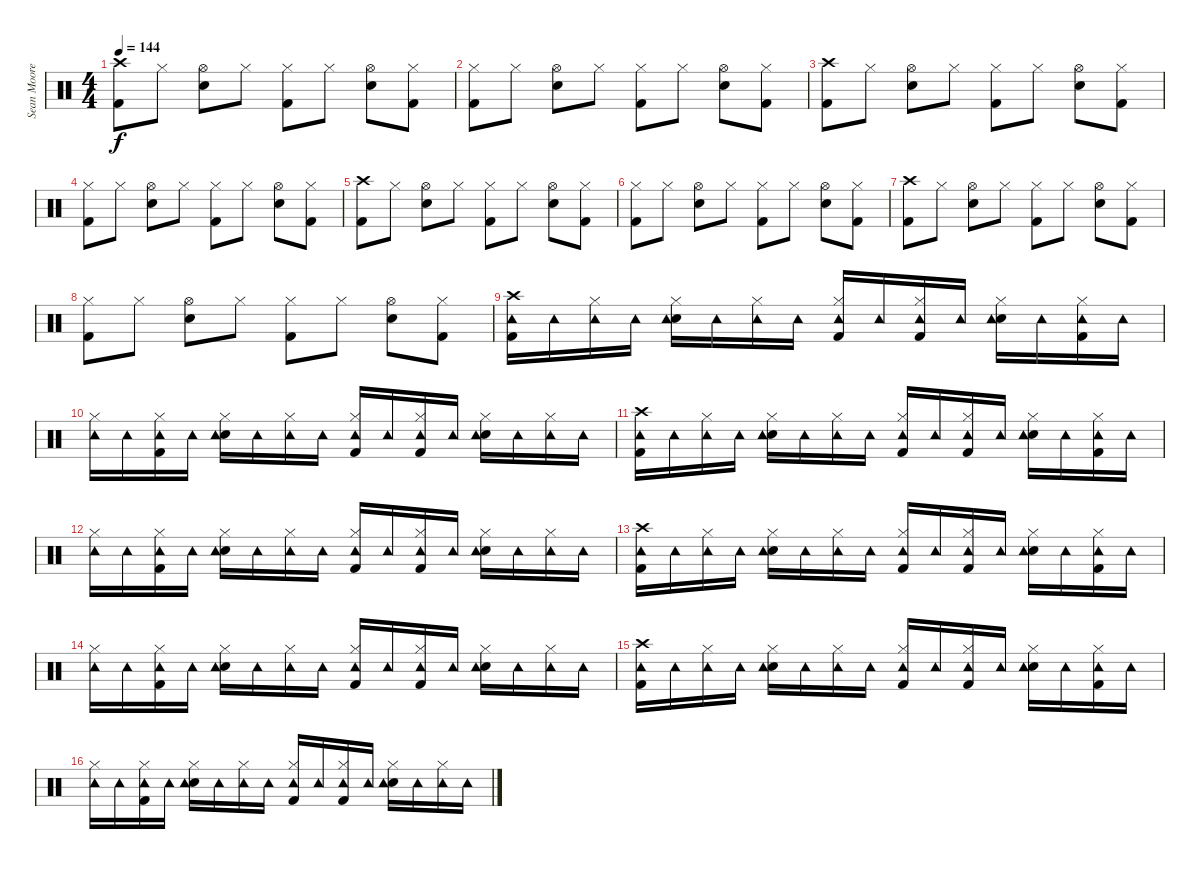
\track ("Sean Moore" "Sean Moore") {instrument percussion}
\staff {score}
\articulation defaults
\ts (4 4)
\tempo 144
\clef neutral
\ks c
("Crash high (hit)" "Kick (hit) 2").8{dy f} "Hi-Hat (closed)".8 ("Hi-Hat (open)" "Snare (hit) 2").8 "Hi-Hat (closed)".8 ("Hi-Hat (closed)" "Kick (hit) 2").8 "Hi-Hat (closed)".8 ("Hi-Hat (open)" "Snare (hit) 2").8 ("Hi-Hat (closed)" "Kick (hit) 2").8 |
("Hi-Hat (closed)" "Kick (hit) 2").8 "Hi-Hat (closed)".8 ("Hi-Hat (open)" "Snare (hit) 2").8 "Hi-Hat (closed)".8 ("Hi-Hat (closed)" "Kick (hit) 2").8 "Hi-Hat (closed)".8 ("Hi-Hat (open)" "Snare (hit) 2").8 ("Hi-Hat (closed)" "Kick (hit) 2").8 |
("Crash high (hit)" "Kick (hit) 2").8 "Hi-Hat (closed)".8 ("Hi-Hat (open)" "Snare (hit) 2").8 "Hi-Hat (closed)".8 ("Hi-Hat (closed)" "Kick (hit) 2").8 "Hi-Hat (closed)".8 ("Hi-Hat (open)" "Snare (hit) 2").8 ("Hi-Hat (closed)" "Kick (hit) 2").8 |
("Hi-Hat (closed)" "Kick (hit) 2").8 "Hi-Hat (closed)".8 ("Hi-Hat (open)" "Snare (hit) 2").8 "Hi-Hat (closed)".8 ("Hi-Hat (closed)" "Kick (hit) 2").8 "Hi-Hat (closed)".8 ("Hi-Hat (open)" "Snare (hit) 2").8 ("Hi-Hat (closed)" "Kick (hit) 2").8 |
("Crash high (hit)" "Kick (hit) 2").8 "Hi-Hat (closed)".8 ("Hi-Hat (open)" "Snare (hit) 2").8 "Hi-Hat (closed)".8 ("Hi-Hat (closed)" "Kick (hit) 2").8 "Hi-Hat (closed)".8 ("Hi-Hat (open)" "Snare (hit) 2").8 ("Hi-Hat (closed)" "Kick (hit) 2").8 |
("Hi-Hat (closed)" "Kick (hit) 2").8 "Hi-Hat (closed)".8 ("Hi-Hat (open)" "Snare (hit) 2").8 "Hi-Hat (closed)".8 ("Hi-Hat (closed)" "Kick (hit) 2").8 "Hi-Hat (closed)".8 ("Hi-Hat (open)" "Snare (hit) 2").8 ("Hi-Hat (closed)" "Kick (hit) 2").8 |
("Crash high (hit)" "Kick (hit) 2").8 "Hi-Hat (closed)".8 ("Hi-Hat (open)" "Snare (hit) 2").8 "Hi-Hat (closed)".8 ("Hi-Hat (closed)" "Kick (hit) 2").8 "Hi-Hat (closed)".8 ("Hi-Hat (open)" "Snare (hit) 2").8 ("Hi-Hat (closed)" "Kick (hit) 2").8 |
("Hi-Hat (closed)" "Kick (hit) 2").8 "Hi-Hat (closed)".8 ("Hi-Hat (open)" "Snare (hit) 2").8 "Hi-Hat (closed)".8 ("Hi-Hat (closed)" "Kick (hit) 2").8 "Hi-Hat (closed)".8 ("Hi-Hat (open)" "Snare (hit) 2").8 ("Hi-Hat (closed)" "Kick (hit) 2").8 |
("Crash high (hit)" "Kick (hit) 2" "Tambourine (hit)").16 "Tambourine (hit)".16 ("Hi-Hat (closed)" "Tambourine (hit)").16 "Tambourine (hit)".16 ("Hi-Hat (closed)" "Snare (hit) 2" "Tambourine (hit)").16 "Tambourine (hit)".16 ("Hi-Hat (closed)" "Tambourine (hit)").16 "Tambourine (hit)".16 ("Hi-Hat (closed)" "Kick (hit) 2" "Tambourine (hit)").16 "Tambourine (hit)".16 ("Hi-Hat (closed)" "Kick (hit) 2" "Tambourine (hit)").16 "Tambourine (hit)".16 ("Hi-Hat (closed)" "Snare (hit) 2" "Tambourine (hit)").16 "Tambourine (hit)".16 ("Hi-Hat (closed)" "Kick (hit) 2" "Tambourine (hit)").16 "Tambourine (hit)".16 |
("Hi-Hat (closed)" "Tambourine (hit)").16 "Tambourine (hit)".16 ("Hi-Hat (closed)" "Kick (hit) 2" "Tambourine (hit)").16 "Tambourine (hit)".16 ("Hi-Hat (closed)" "Snare (hit) 2" "Tambourine (hit)").16 "Tambourine (hit)".16 ("Hi-Hat (closed)" "Tambourine (hit)").16 "Tambourine (hit)".16 ("Hi-Hat (closed)" "Kick (hit) 2" "Tambourine (hit)").16 "Tambourine (hit)".16 ("Hi-Hat (closed)" "Kick (hit) 2" "Tambourine (hit)").16 "Tambourine (hit)".16 ("Hi-Hat (closed)" "Snare (hit) 2" "Tambourine (hit)").16 "Tambourine (hit)".16 ("Hi-Hat (closed)" "Tambourine (hit)").16 "Tambourine (hit)".16 |
("Crash high (hit)" "Kick (hit) 2" "Tambourine (hit)").16 "Tambourine (hit)".16 ("Hi-Hat (closed)" "Tambourine (hit)").16 "Tambourine (hit)".16 ("Hi-Hat (closed)" "Snare (hit) 2" "Tambourine (hit)").16 "Tambourine (hit)".16 ("Hi-Hat (closed)" "Tambourine (hit)").16 "Tambourine (hit)".16 ("Hi-Hat (closed)" "Kick (hit) 2" "Tambourine (hit)").16 "Tambourine (hit)".16 ("Hi-Hat (closed)" "Kick (hit) 2" "Tambourine (hit)").16 "Tambourine (hit)".16 ("Hi-Hat (closed)" "Snare (hit) 2" "Tambourine (hit)").16 "Tambourine (hit)".16 ("Hi-Hat (closed)" "Kick (hit) 2" "Tambourine (hit)").16 "Tambourine (hit)".16 |
("Hi-Hat (closed)" "Tambourine (hit)").16 "Tambourine (hit)".16 ("Hi-Hat (closed)" "Kick (hit) 2" "Tambourine (hit)").16 "Tambourine (hit)".16 ("Hi-Hat (closed)" "Snare (hit) 2" "Tambourine (hit)").16 "Tambourine (hit)".16 ("Hi-Hat (closed)" "Tambourine (hit)").16 "Tambourine (hit)".16 ("Hi-Hat (closed)" "Kick (hit) 2" "Tambourine (hit)").16 "Tambourine (hit)".16 ("Hi-Hat (closed)" "Kick (hit) 2" "Tambourine (hit)").16 "Tambourine (hit)".16 ("Hi-Hat (closed)" "Snare (hit) 2" "Tambourine (hit)").16 "Tambourine (hit)".16 ("Hi-Hat (closed)" "Tambourine (hit)").16 "Tambourine (hit)".16 |
("Crash high (hit)" "Kick (hit) 2" "Tambourine (hit)").16 "Tambourine (hit)".16 ("Hi-Hat (closed)" "Tambourine (hit)").16 "Tambourine (hit)".16 ("Hi-Hat (closed)" "Snare (hit) 2" "Tambourine (hit)").16 "Tambourine (hit)".16 ("Hi-Hat (closed)" "Tambourine (hit)").16 "Tambourine (hit)".16 ("Hi-Hat (closed)" "Kick (hit) 2" "Tambourine (hit)").16 "Tambourine (hit)".16 ("Hi-Hat (closed)" "Kick (hit) 2" "Tambourine (hit)").16 "Tambourine (hit)".16 ("Hi-Hat (closed)" "Snare (hit) 2" "Tambourine (hit)").16 "Tambourine (hit)".16 ("Hi-Hat (closed)" "Kick (hit) 2" "Tambourine (hit)").16 "Tambourine (hit)".16 |
("Hi-Hat (closed)" "Tambourine (hit)").16 "Tambourine (hit)".16 ("Hi-Hat (closed)" "Kick (hit) 2" "Tambourine (hit)").16 "Tambourine (hit)".16 ("Hi-Hat (closed)" "Snare (hit) 2" "Tambourine (hit)").16 "Tambourine (hit)".16 ("Hi-Hat (closed)" "Tambourine (hit)").16 "Tambourine (hit)".16 ("Hi-Hat (closed)" "Kick (hit) 2" "Tambourine (hit)").16 "Tambourine (hit)".16 ("Hi-Hat (closed)" "Kick (hit) 2" "Tambourine (hit)").16 "Tambourine (hit)".16 ("Hi-Hat (closed)" "Snare (hit) 2" "Tambourine (hit)").16 "Tambourine (hit)".16 ("Hi-Hat (closed)" "Tambourine (hit)").16 "Tambourine (hit)".16 |
("Crash high (hit)" "Kick (hit) 2" "Tambourine (hit)").16 "Tambourine (hit)".16 ("Hi-Hat (closed)" "Tambourine (hit)").16 "Tambourine (hit)".16 ("Hi-Hat (closed)" "Snare (hit) 2" "Tambourine (hit)").16 "Tambourine (hit)".16 ("Hi-Hat (closed)" "Tambourine (hit)").16 "Tambourine (hit)".16 ("Hi-Hat (closed)" "Kick (hit) 2" "Tambourine (hit)").16 "Tambourine (hit)".16 ("Hi-Hat (closed)" "Kick (hit) 2" "Tambourine (hit)").16 "Tambourine (hit)".16 ("Hi-Hat (closed)" "Snare (hit) 2" "Tambourine (hit)").16 "Tambourine (hit)".16 ("Hi-Hat (closed)" "Kick (hit) 2" "Tambourine (hit)").16 "Tambourine (hit)".16 |
("Hi-Hat (closed)" "Tambourine (hit)").16 "Tambourine (hit)".16 ("Hi-Hat (closed)" "Kick (hit) 2" "Tambourine (hit)").16 "Tambourine (hit)".16 ("Hi-Hat (closed)" "Snare (hit) 2" "Tambourine (hit)").16 "Tambourine (hit)".16 ("Hi-Hat (closed)" "Tambourine (hit)").16 "Tambourine (hit)".16 ("Hi-Hat (closed)" "Kick (hit) 2" "Tambourine (hit)").16 "Tambourine (hit)".16 ("Hi-Hat (closed)" "Kick (hit) 2" "Tambourine (hit)").16 "Tambourine (hit)".16 ("Hi-Hat (closed)" "Snare (hit) 2" "Tambourine (hit)").16 "Tambourine (hit)".16 ("Hi-Hat (closed)" "Tambourine (hit)").16 "Tambourine (hit)".16
